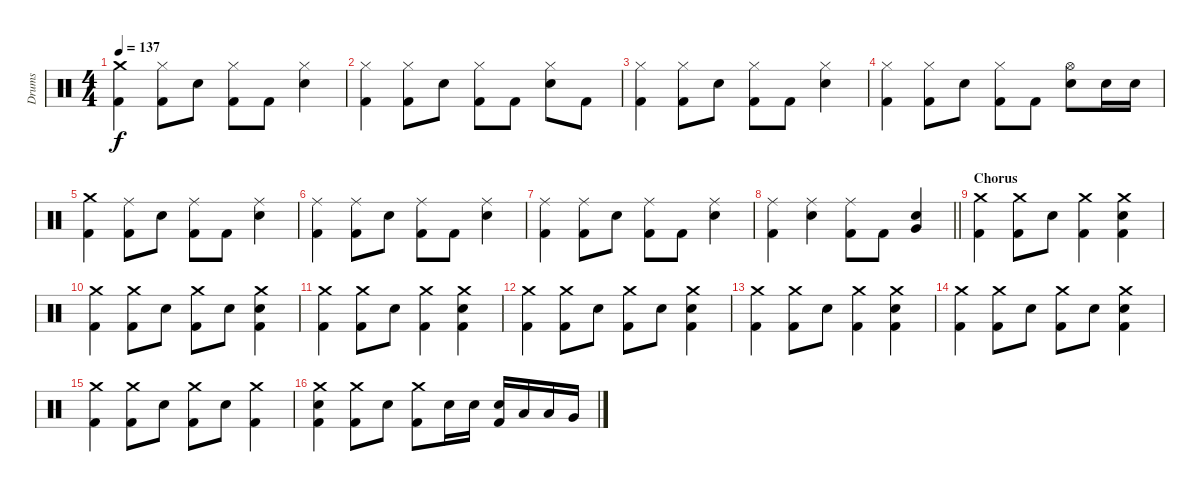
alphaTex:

\track ("Drums" "Drums") {instrument percussion}
\staff {score}
\articulation defaults
\ts (4 4)
\tempo 137
\clef neutral
\ks c
("Crash medium (hit)" "Kick (hit) 2").4{dy f} ("Hi-Hat (closed)" "Kick (hit) 2").8 "Electric Snare (hit)".8 ("Hi-Hat (closed)" "Kick (hit) 2").8 "Kick (hit) 2".8 ("Hi-Hat (closed)" "Electric Snare (hit)").4 |
("Hi-Hat (closed)" "Kick (hit) 2").4 ("Hi-Hat (closed)" "Kick (hit) 2").8 "Electric Snare (hit)".8 ("Hi-Hat (closed)" "Kick (hit) 2").8 "Kick (hit) 2".8 ("Hi-Hat (closed)" "Electric Snare (hit)").8 "Kick (hit) 2".8 |
("Hi-Hat (closed)" "Kick (hit) 2").4 ("Hi-Hat (closed)" "Kick (hit) 2").8 "Electric Snare (hit)".8 ("Hi-Hat (closed)" "Kick (hit) 2").8 "Kick (hit) 2".8 ("Hi-Hat (closed)" "Electric Snare (hit)").4 |
("Hi-Hat (closed)" "Kick (hit) 2").4 ("Hi-Hat (closed)" "Kick (hit) 2").8 "Electric Snare (hit)".8 ("Hi-Hat (closed)" "Kick (hit) 2").8 "Kick (hit) 2".8 ("Hi-Hat (open)" "Electric Snare (hit)").8 "Electric Snare (hit)".16 "Electric Snare (hit)".16 |
("Crash medium (hit)" "Kick (hit) 2").4 ("Ride (middle)" "Kick (hit) 2").8 "Electric Snare (hit)".8 ("Ride (middle)" "Kick (hit) 2").8 "Kick (hit) 2".8 ("Ride (middle)" "Electric Snare (hit)").4 |
("Ride (middle)" "Kick (hit) 2").4 ("Ride (middle)" "Kick (hit) 2").8 "Electric Snare (hit)".8 ("Ride (middle)" "Kick (hit) 2").8 "Kick (hit) 2".8 ("Ride (middle)" "Electric Snare (hit)").4 |
("Ride (middle)" "Kick (hit) 2").4 ("Ride (middle)" "Kick (hit) 2").8 "Electric Snare (hit)".8 ("Ride (middle)" "Kick (hit) 2").8 "Kick (hit) 2".8 ("Ride (middle)" "Electric Snare (hit)").4 |
\barLineRight lightlight
("Ride (middle)" "Kick (hit) 2").4 ("Ride (middle)" "Electric Snare (hit)").4 ("Ride (middle)" "Kick (hit) 2").8 "Kick (hit) 2".8 ("Electric Snare (hit)" "Very Low Tom (hit)").4 |
\section ("" "Chorus")
("Crash medium (hit)" "Kick (hit) 2").4 ("Crash medium (hit)" "Kick (hit) 2").8 "Electric Snare (hit)".8 ("Crash medium (hit)" "Kick (hit) 2").4 ("Crash medium (hit)" "Electric Snare (hit)" "Kick (hit) 2").4 |
("Crash medium (hit)" "Kick (hit) 2").4 ("Crash medium (hit)" "Kick (hit) 2").8 "Electric Snare (hit)".8 ("Crash medium (hit)" "Kick (hit) 2").8 "Electric Snare (hit)".8 ("Crash medium (hit)" "Electric Snare (hit)" "Kick (hit) 2").4 |
("Crash medium (hit)" "Kick (hit) 2").4 ("Crash medium (hit)" "Kick (hit) 2").8 "Electric Snare (hit)".8 ("Crash medium (hit)" "Kick (hit) 2").4 ("Crash medium (hit)" "Electric Snare (hit)" "Kick (hit) 2").4 |
("Crash medium (hit)" "Kick (hit) 2").4 ("Crash medium (hit)" "Kick (hit) 2").8 "Electric Snare (hit)".8 ("Crash medium (hit)" "Kick (hit) 2").8 "Electric Snare (hit)".8 ("Crash medium (hit)" "Electric Snare (hit)" "Kick (hit) 2").4 |
("Crash medium (hit)" "Kick (hit) 2").4 ("Crash medium (hit)" "Kick (hit) 2").8 "Electric Snare (hit)".8 ("Crash medium (hit)" "Kick (hit) 2").4 ("Crash medium (hit)" "Electric Snare (hit)" "Kick (hit) 2").4 |
("Crash medium (hit)" "Kick (hit) 2").4 ("Crash medium (hit)" "Kick (hit) 2").8 "Electric Snare (hit)".8 ("Crash medium (hit)" "Kick (hit) 2").8 "Electric Snare (hit)".8 ("Crash medium (hit)" "Electric Snare (hit)" "Kick (hit) 2").4 |
("Crash medium (hit)" "Kick (hit) 2").4 ("Crash medium (hit)" "Kick (hit) 2").8 "Electric Snare (hit)".8 ("Crash medium (hit)" "Kick (hit) 2").8 "Electric Snare (hit)".8 ("Crash medium (hit)" "Kick (hit) 2").4 |
("Crash medium (hit)" "Electric Snare (hit)" "Kick (hit) 2").4 ("Crash medium (hit)" "Kick (hit) 2").8 "Electric Snare (hit)".8 ("Crash medium (hit)" "Kick (hit) 2").8 "Electric Snare (hit)".16 "Electric Snare (hit)".16 ("Electric Snare (hit)" "Kick (hit) 2").16 "Low Tom (hit)".16 "Low Tom (hit)".16 "Very Low Tom (hit)".16
